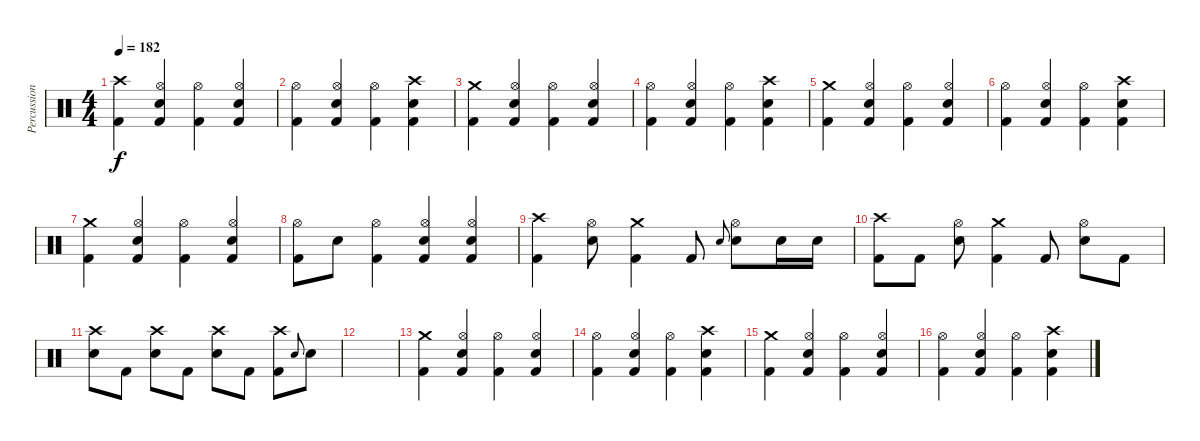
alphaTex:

\track ("Percussion" "Percussion") {instrument percussion}
\staff {score}
\articulation defaults
\ts (4 4)
\tempo 182
\clef neutral
\ks c
("Crash high (hit)" "Kick (hit) 2").4{dy f} ("Hi-Hat (open)" "Electric Snare (hit)" "Kick (hit) 2").4 ("Hi-Hat (open)" "Kick (hit) 2").4 ("Hi-Hat (open)" "Electric Snare (hit)" "Kick (hit) 2").4 |
("Hi-Hat (open)" "Kick (hit) 2").4 ("Hi-Hat (open)" "Electric Snare (hit)" "Kick (hit) 2").4 ("Hi-Hat (open)" "Kick (hit) 2").4 ("Crash high (hit)" "Electric Snare (hit)" "Kick (hit) 2").4 |
("Crash medium (hit)" "Kick (hit) 2").4 ("Hi-Hat (open)" "Electric Snare (hit)" "Kick (hit) 2").4 ("Hi-Hat (open)" "Kick (hit) 2").4 ("Hi-Hat (open)" "Electric Snare (hit)" "Kick (hit) 2").4 |
("Hi-Hat (open)" "Kick (hit) 2").4 ("Hi-Hat (open)" "Electric Snare (hit)" "Kick (hit) 2").4 ("Hi-Hat (open)" "Kick (hit) 2").4 ("Crash high (hit)" "Electric Snare (hit)" "Kick (hit) 2").4 |
("Crash medium (hit)" "Kick (hit) 2").4 ("Hi-Hat (open)" "Electric Snare (hit)" "Kick (hit) 2").4 ("Hi-Hat (open)" "Kick (hit) 2").4 ("Hi-Hat (open)" "Electric Snare (hit)" "Kick (hit) 2").4 |
("Hi-Hat (open)" "Kick (hit) 2").4 ("Hi-Hat (open)" "Electric Snare (hit)" "Kick (hit) 2").4 ("Hi-Hat (open)" "Kick (hit) 2").4 ("Crash high (hit)" "Electric Snare (hit)" "Kick (hit) 2").4 |
("Crash medium (hit)" "Kick (hit) 2").4 ("Hi-Hat (open)" "Electric Snare (hit)" "Kick (hit) 2").4 ("Hi-Hat (open)" "Kick (hit) 2").4 ("Hi-Hat (open)" "Electric Snare (hit)" "Kick (hit) 2").4 |
("Hi-Hat (open)" "Kick (hit) 2").8 "Electric Snare (hit)".8 ("Hi-Hat (open)" "Kick (hit) 2").4 ("Hi-Hat (open)" "Electric Snare (hit)" "Kick (hit) 2").4 ("Hi-Hat (open)" "Electric Snare (hit)" "Kick (hit) 2").4 |
("Crash high (hit)" "Kick (hit) 2").4 ("Hi-Hat (open)" "Electric Snare (hit)").8 ("Crash medium (hit)" "Kick (hit) 2").4 "Kick (hit) 2".8 "Electric Snare (hit)".8{gr onbeat} ("Hi-Hat (open)" "Electric Snare (hit)").8 "Electric Snare (hit)".16 "Electric Snare (hit)".16 |
("Crash high (hit)" "Kick (hit) 2").8 "Kick (hit) 2".8 ("Hi-Hat (open)" "Electric Snare (hit)").8 ("Crash medium (hit)" "Kick (hit) 2").4 "Kick (hit) 2".8 ("Hi-Hat (open)" "Electric Snare (hit)").8 "Kick (hit) 2".8 |
("Crash high (hit)" "Electric Snare (hit)").8 "Kick (hit) 2".8 ("Crash high (hit)" "Electric Snare (hit)").8 "Kick (hit) 2".8 ("Crash high (hit)" "Electric Snare (hit)").8 "Kick (hit) 2".8 ("Crash high (hit)" "Kick (hit) 2").8 "Electric Snare (hit)".8{gr onbeat} "Electric Snare (hit)".8 |
|
("Crash medium (hit)" "Kick (hit) 2").4 ("Hi-Hat (open)" "Electric Snare (hit)" "Kick (hit) 2").4 ("Hi-Hat (open)" "Kick (hit) 2").4 ("Hi-Hat (open)" "Electric Snare (hit)" "Kick (hit) 2").4 |
("Hi-Hat (open)" "Kick (hit) 2").4 ("Hi-Hat (open)" "Electric Snare (hit)" "Kick (hit) 2").4 ("Hi-Hat (open)" "Kick (hit) 2").4 ("Crash high (hit)" "Electric Snare (hit)" "Kick (hit) 2").4 |
("Crash medium (hit)" "Kick (hit) 2").4 ("Hi-Hat (open)" "Electric Snare (hit)" "Kick (hit) 2").4 ("Hi-Hat (open)" "Kick (hit) 2").4 ("Hi-Hat (open)" "Electric Snare (hit)" "Kick (hit) 2").4 |
("Hi-Hat (open)" "Kick (hit) 2").4 ("Hi-Hat (open)" "Electric Snare (hit)" "Kick (hit) 2").4 ("Hi-Hat (open)" "Kick (hit) 2").4 ("Crash high (hit)" "Electric Snare (hit)" "Kick (hit) 2").4
